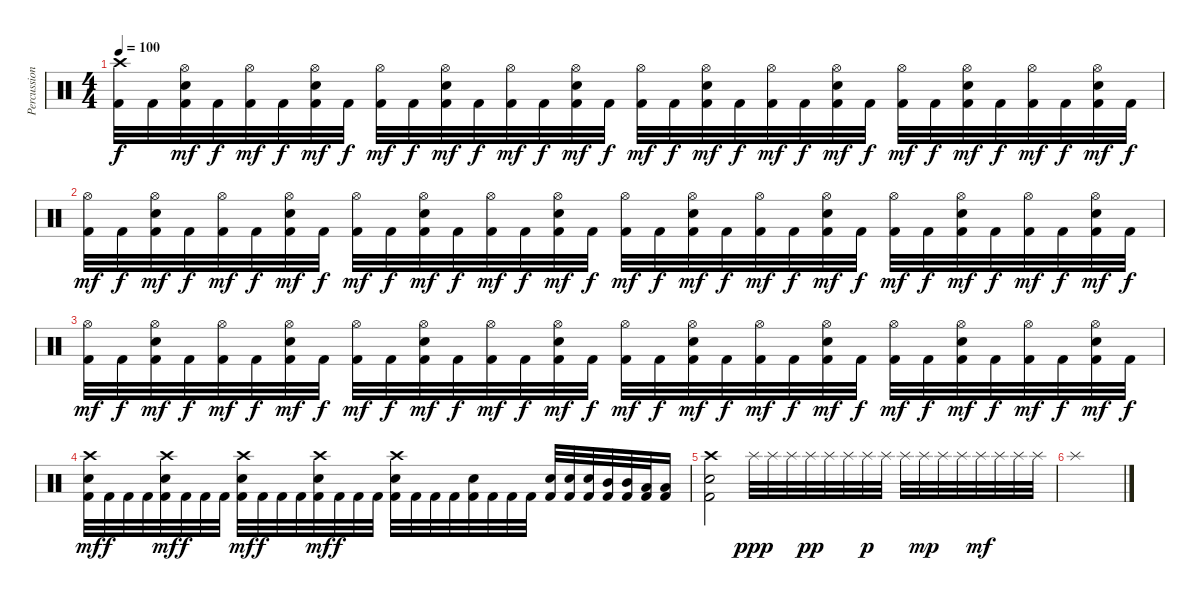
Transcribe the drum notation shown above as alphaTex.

\track ("Percussion" "Percussion") {instrument percussion}
\staff {score}
\articulation defaults
\ts (4 4)
\tempo 100
\clef neutral
\ks c
("Crash high (hit)" "Kick (hit) 2").32{dy f} "Kick (hit) 2".32 ("Hi-Hat (open)" "Electric Snare (hit)" "Kick (hit) 2").32{dy mf} "Kick (hit) 2".32{dy f} ("Hi-Hat (open)" "Kick (hit) 2").32{dy mf} "Kick (hit) 2".32{dy f} ("Hi-Hat (open)" "Electric Snare (hit)" "Kick (hit) 2").32{dy mf} "Kick (hit) 2".32{dy f} ("Hi-Hat (open)" "Kick (hit) 2").32{dy mf} "Kick (hit) 2".32{dy f} ("Hi-Hat (open)" "Electric Snare (hit)" "Kick (hit) 2").32{dy mf} "Kick (hit) 2".32{dy f} ("Hi-Hat (open)" "Kick (hit) 2").32{dy mf} "Kick (hit) 2".32{dy f} ("Hi-Hat (open)" "Electric Snare (hit)" "Kick (hit) 2").32{dy mf} "Kick (hit) 2".32{dy f} ("Hi-Hat (open)" "Kick (hit) 2").32{dy mf} "Kick (hit) 2".32{dy f} ("Hi-Hat (open)" "Electric Snare (hit)" "Kick (hit) 2").32{dy mf} "Kick (hit) 2".32{dy f} ("Hi-Hat (open)" "Kick (hit) 2").32{dy mf} "Kick (hit) 2".32{dy f} ("Hi-Hat (open)" "Electric Snare (hit)" "Kick (hit) 2").32{dy mf} "Kick (hit) 2".32{dy f} ("Hi-Hat (open)" "Kick (hit) 2").32{dy mf} "Kick (hit) 2".32{dy f} ("Hi-Hat (open)" "Electric Snare (hit)" "Kick (hit) 2").32{dy mf} "Kick (hit) 2".32{dy f} ("Hi-Hat (open)" "Kick (hit) 2").32{dy mf} "Kick (hit) 2".32{dy f} ("Hi-Hat (open)" "Electric Snare (hit)" "Kick (hit) 2").32{dy mf} "Kick (hit) 2".32{dy f} |
("Hi-Hat (open)" "Kick (hit) 2").32{dy mf} "Kick (hit) 2".32{dy f} ("Hi-Hat (open)" "Electric Snare (hit)" "Kick (hit) 2").32{dy mf} "Kick (hit) 2".32{dy f} ("Hi-Hat (open)" "Kick (hit) 2").32{dy mf} "Kick (hit) 2".32{dy f} ("Hi-Hat (open)" "Electric Snare (hit)" "Kick (hit) 2").32{dy mf} "Kick (hit) 2".32{dy f} ("Hi-Hat (open)" "Kick (hit) 2").32{dy mf} "Kick (hit) 2".32{dy f} ("Hi-Hat (open)" "Electric Snare (hit)" "Kick (hit) 2").32{dy mf} "Kick (hit) 2".32{dy f} ("Hi-Hat (open)" "Kick (hit) 2").32{dy mf} "Kick (hit) 2".32{dy f} ("Hi-Hat (open)" "Electric Snare (hit)" "Kick (hit) 2").32{dy mf} "Kick (hit) 2".32{dy f} ("Hi-Hat (open)" "Kick (hit) 2").32{dy mf} "Kick (hit) 2".32{dy f} ("Hi-Hat (open)" "Electric Snare (hit)" "Kick (hit) 2").32{dy mf} "Kick (hit) 2".32{dy f} ("Hi-Hat (open)" "Kick (hit) 2").32{dy mf} "Kick (hit) 2".32{dy f} ("Hi-Hat (open)" "Electric Snare (hit)" "Kick (hit) 2").32{dy mf} "Kick (hit) 2".32{dy f} ("Hi-Hat (open)" "Kick (hit) 2").32{dy mf} "Kick (hit) 2".32{dy f} ("Hi-Hat (open)" "Electric Snare (hit)" "Kick (hit) 2").32{dy mf} "Kick (hit) 2".32{dy f} ("Hi-Hat (open)" "Kick (hit) 2").32{dy mf} "Kick (hit) 2".32{dy f} ("Hi-Hat (open)" "Electric Snare (hit)" "Kick (hit) 2").32{dy mf} "Kick (hit) 2".32{dy f} |
("Hi-Hat (open)" "Kick (hit) 2").32{dy mf} "Kick (hit) 2".32{dy f} ("Hi-Hat (open)" "Electric Snare (hit)" "Kick (hit) 2").32{dy mf} "Kick (hit) 2".32{dy f} ("Hi-Hat (open)" "Kick (hit) 2").32{dy mf} "Kick (hit) 2".32{dy f} ("Hi-Hat (open)" "Electric Snare (hit)" "Kick (hit) 2").32{dy mf} "Kick (hit) 2".32{dy f} ("Hi-Hat (open)" "Kick (hit) 2").32{dy mf} "Kick (hit) 2".32{dy f} ("Hi-Hat (open)" "Electric Snare (hit)" "Kick (hit) 2").32{dy mf} "Kick (hit) 2".32{dy f} ("Hi-Hat (open)" "Kick (hit) 2").32{dy mf} "Kick (hit) 2".32{dy f} ("Hi-Hat (open)" "Electric Snare (hit)" "Kick (hit) 2").32{dy mf} "Kick (hit) 2".32{dy f} ("Hi-Hat (open)" "Kick (hit) 2").32{dy mf} "Kick (hit) 2".32{dy f} ("Hi-Hat (open)" "Electric Snare (hit)" "Kick (hit) 2").32{dy mf} "Kick (hit) 2".32{dy f} ("Hi-Hat (open)" "Kick (hit) 2").32{dy mf} "Kick (hit) 2".32{dy f} ("Hi-Hat (open)" "Electric Snare (hit)" "Kick (hit) 2").32{dy mf} "Kick (hit) 2".32{dy f} ("Hi-Hat (open)" "Kick (hit) 2").32{dy mf} "Kick (hit) 2".32{dy f} ("Hi-Hat (open)" "Electric Snare (hit)" "Kick (hit) 2").32{dy mf} "Kick (hit) 2".32{dy f} ("Hi-Hat (open)" "Kick (hit) 2").32{dy mf} "Kick (hit) 2".32{dy f} ("Hi-Hat (open)" "Electric Snare (hit)" "Kick (hit) 2").32{dy mf} "Kick (hit) 2".32{dy f} |
("Crash high (hit)" "Electric Snare (hit)" "Kick (hit) 2").32{dy mf} "Kick (hit) 2".32{dy f} "Kick (hit) 2".32 "Kick (hit) 2".32 ("Crash high (hit)" "Electric Snare (hit)" "Kick (hit) 2").32{dy mf} "Kick (hit) 2".32{dy f} "Kick (hit) 2".32 "Kick (hit) 2".32 ("Crash high (hit)" "Electric Snare (hit)" "Kick (hit) 2").32{dy mf} "Kick (hit) 2".32{dy f} "Kick (hit) 2".32 "Kick (hit) 2".32 ("Crash high (hit)" "Electric Snare (hit)" "Kick (hit) 2").32{dy mf} "Kick (hit) 2".32{dy f} "Kick (hit) 2".32 "Kick (hit) 2".32 ("Crash high (hit)" "Electric Snare (hit)" "Kick (hit) 2").32 "Kick (hit) 2".32 "Kick (hit) 2".32 "Kick (hit) 2".32 ("Electric Snare (hit)" "Kick (hit) 2").32 "Kick (hit) 2".32 "Kick (hit) 2".32 "Kick (hit) 2".32 ("Electric Snare (hit)" "Kick (hit) 2").32 ("Electric Snare (hit)" "Kick (hit) 2").32 ("Electric Snare (hit)" "Kick (hit) 2").32 ("Mid Tom (hit)" "Kick (hit) 2").32 ("Mid Tom (hit)" "Kick (hit) 2").32 ("Low Tom (hit)" "Kick (hit) 2").32 ("Low Tom (hit)" "Kick (hit) 2").16 |
("Crash high (hit)" "Electric Snare (hit)" "Kick (hit) 2").2 "Splash (hit)".32{dy ppp} "Splash (hit)".32 "Splash (hit)".32 "Splash (hit)".32{dy pp} "Splash (hit)".32 "Splash (hit)".32 "Splash (hit)".32{dy p} "Splash (hit)".32 "Splash (hit)".32 "Splash (hit)".32{dy mp} "Splash (hit)".32 "Splash (hit)".32 "Splash (hit)".32{dy mf} "Splash (hit)".32 "Splash (hit)".32 "Splash (hit)".32 |
"Splash (hit)".1
